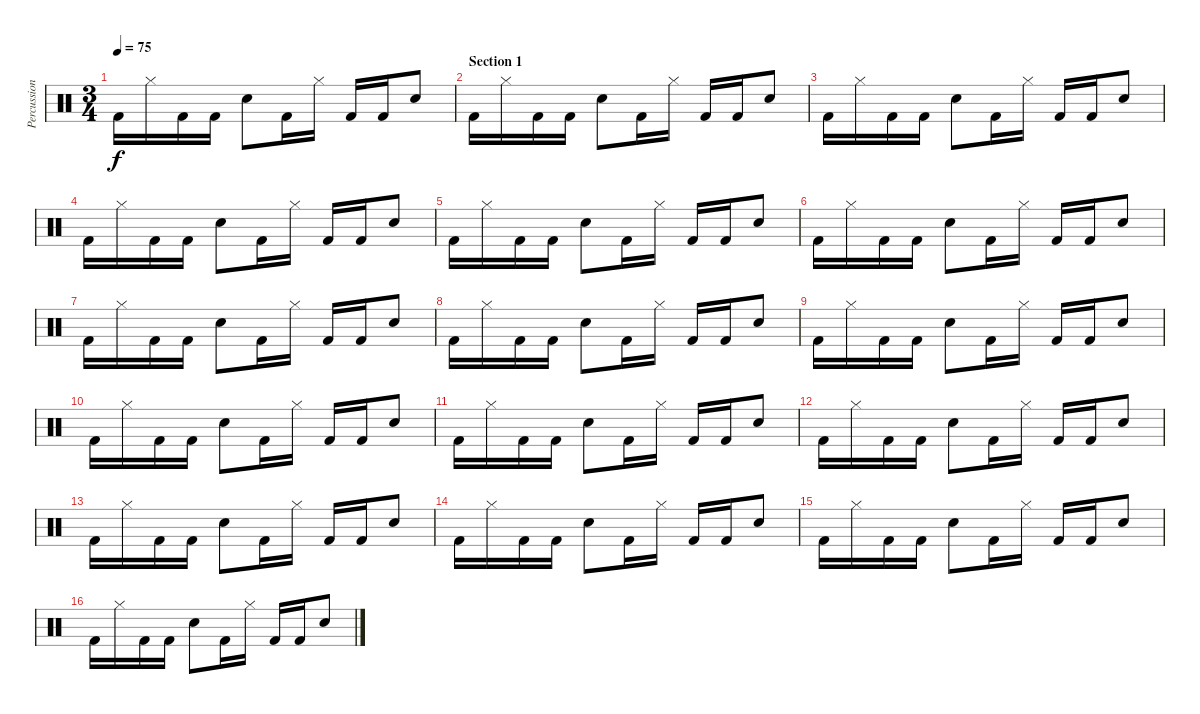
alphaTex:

\track ("Percussions" "Percussion") {instrument percussion}
\staff {score}
\articulation defaults
\ts (3 4)
\tempo 75
\clef neutral
\ks c "Kick (hit) 2".16{dy f} "Hi-Hat (closed)".16 "Kick (hit) 2".16 "Kick (hit) 2".16 "Snare (hit) 2".8 "Kick (hit) 2".16 "Hi-Hat (closed)".16 "Kick (hit) 2".16 "Kick (hit) 2".16 "Snare (hit) 2".8
|
\section ("" "Section 1")
"Kick (hit) 2".16 "Hi-Hat (closed)".16 "Kick (hit) 2".16 "Kick (hit) 2".16 "Snare (hit) 2".8 "Kick (hit) 2".16 "Hi-Hat (closed)".16 "Kick (hit) 2".16 "Kick (hit) 2".16 "Snare (hit) 2".8 |
"Kick (hit) 2".16 "Hi-Hat (closed)".16 "Kick (hit) 2".16 "Kick (hit) 2".16 "Snare (hit) 2".8 "Kick (hit) 2".16 "Hi-Hat (closed)".16 "Kick (hit) 2".16 "Kick (hit) 2".16 "Snare (hit) 2".8 |
"Kick (hit) 2".16 "Hi-Hat (closed)".16 "Kick (hit) 2".16 "Kick (hit) 2".16 "Snare (hit) 2".8 "Kick (hit) 2".16 "Hi-Hat (closed)".16 "Kick (hit) 2".16 "Kick (hit) 2".16 "Snare (hit) 2".8 |
"Kick (hit) 2".16 "Hi-Hat (closed)".16 "Kick (hit) 2".16 "Kick (hit) 2".16 "Snare (hit) 2".8 "Kick (hit) 2".16 "Hi-Hat (closed)".16 "Kick (hit) 2".16 "Kick (hit) 2".16 "Snare (hit) 2".8 |
"Kick (hit) 2".16 "Hi-Hat (closed)".16 "Kick (hit) 2".16 "Kick (hit) 2".16 "Snare (hit) 2".8 "Kick (hit) 2".16 "Hi-Hat (closed)".16 "Kick (hit) 2".16 "Kick (hit) 2".16 "Snare (hit) 2".8 |
"Kick (hit) 2".16 "Hi-Hat (closed)".16 "Kick (hit) 2".16 "Kick (hit) 2".16 "Snare (hit) 2".8 "Kick (hit) 2".16 "Hi-Hat (closed)".16 "Kick (hit) 2".16 "Kick (hit) 2".16 "Snare (hit) 2".8 |
"Kick (hit) 2".16 "Hi-Hat (closed)".16 "Kick (hit) 2".16 "Kick (hit) 2".16 "Snare (hit) 2".8 "Kick (hit) 2".16 "Hi-Hat (closed)".16 "Kick (hit) 2".16 "Kick (hit) 2".16 "Snare (hit) 2".8 |
"Kick (hit) 2".16 "Hi-Hat (closed)".16 "Kick (hit) 2".16 "Kick (hit) 2".16 "Snare (hit) 2".8 "Kick (hit) 2".16 "Hi-Hat (closed)".16 "Kick (hit) 2".16 "Kick (hit) 2".16 "Snare (hit) 2".8 |
"Kick (hit) 2".16 "Hi-Hat (closed)".16 "Kick (hit) 2".16 "Kick (hit) 2".16 "Snare (hit) 2".8 "Kick (hit) 2".16 "Hi-Hat (closed)".16 "Kick (hit) 2".16 "Kick (hit) 2".16 "Snare (hit) 2".8 |
"Kick (hit) 2".16 "Hi-Hat (closed)".16 "Kick (hit) 2".16 "Kick (hit) 2".16 "Snare (hit) 2".8 "Kick (hit) 2".16 "Hi-Hat (closed)".16 "Kick (hit) 2".16 "Kick (hit) 2".16 "Snare (hit) 2".8 |
"Kick (hit) 2".16 "Hi-Hat (closed)".16 "Kick (hit) 2".16 "Kick (hit) 2".16 "Snare (hit) 2".8 "Kick (hit) 2".16 "Hi-Hat (closed)".16 "Kick (hit) 2".16 "Kick (hit) 2".16 "Snare (hit) 2".8 |
"Kick (hit) 2".16 "Hi-Hat (closed)".16 "Kick (hit) 2".16 "Kick (hit) 2".16 "Snare (hit) 2".8 "Kick (hit) 2".16 "Hi-Hat (closed)".16 "Kick (hit) 2".16 "Kick (hit) 2".16 "Snare (hit) 2".8 |
"Kick (hit) 2".16 "Hi-Hat (closed)".16 "Kick (hit) 2".16 "Kick (hit) 2".16 "Snare (hit) 2".8 "Kick (hit) 2".16 "Hi-Hat (closed)".16 "Kick (hit) 2".16 "Kick (hit) 2".16 "Snare (hit) 2".8 |
"Kick (hit) 2".16 "Hi-Hat (closed)".16 "Kick (hit) 2".16 "Kick (hit) 2".16 "Snare (hit) 2".8 "Kick (hit) 2".16 "Hi-Hat (closed)".16 "Kick (hit) 2".16 "Kick (hit) 2".16 "Snare (hit) 2".8 |
"Kick (hit) 2".16 "Hi-Hat (closed)".16 "Kick (hit) 2".16 "Kick (hit) 2".16 "Snare (hit) 2".8 "Kick (hit) 2".16 "Hi-Hat (closed)".16 "Kick (hit) 2".16 "Kick (hit) 2".16 "Snare (hit) 2".8
